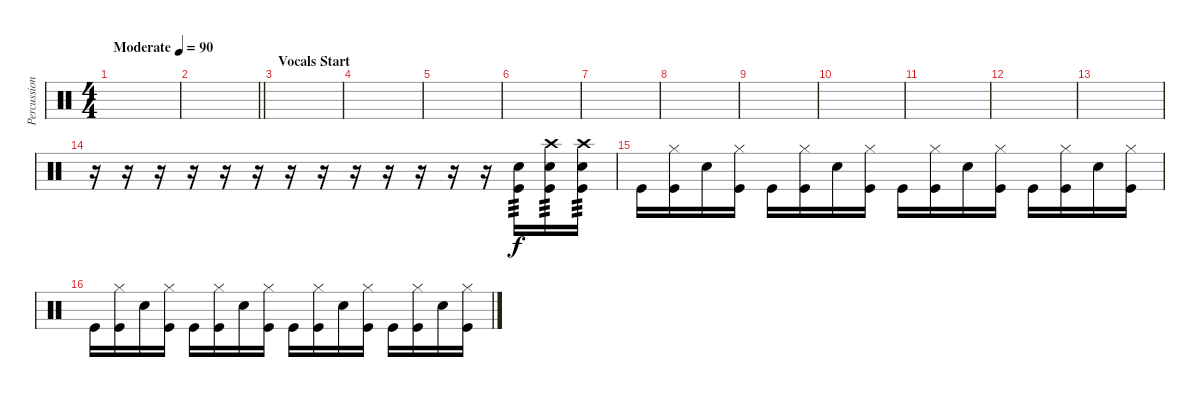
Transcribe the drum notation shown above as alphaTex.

\track ("Percussion" "Percussion") {instrument percussion}
\staff {score}
\articulation defaults
\ts (4 4)
\tempo (90 "Moderate")
\clef neutral
\ks c
|
\barLineRight lightlight
|
\section ("" "Vocals Start")
|
|
|
|
|
|
|
|
|
|
|
r.16 r.16 r.16 r.16 r.16 r.16 r.16 r.16 r.16 r.16 r.16 r.16 r.16 ("Snare (hit) 2" "Kick (hit)").16{tp 3} ("Crash high (hit)" "Snare (hit) 2" "Kick (hit)").16{tp 3} ("Crash high (hit)" "Snare (hit) 2" "Kick (hit)").16{tp 3} |
"Kick (hit)".16 ("Hi-Hat (closed)" "Kick (hit)").16 "Snare (hit) 2".16 ("Hi-Hat (closed)" "Kick (hit)").16 "Kick (hit)".16 ("Hi-Hat (closed)" "Kick (hit)").16 "Snare (hit) 2".16 ("Hi-Hat (closed)" "Kick (hit)").16 "Kick (hit)".16 ("Hi-Hat (closed)" "Kick (hit)").16 "Snare (hit) 2".16 ("Hi-Hat (closed)" "Kick (hit)").16 "Kick (hit)".16 ("Hi-Hat (closed)" "Kick (hit)").16 "Snare (hit) 2".16 ("Hi-Hat (closed)" "Kick (hit)").16 |
"Kick (hit)".16 ("Hi-Hat (closed)" "Kick (hit)").16 "Snare (hit) 2".16 ("Hi-Hat (closed)" "Kick (hit)").16 "Kick (hit)".16 ("Hi-Hat (closed)" "Kick (hit)").16 "Snare (hit) 2".16 ("Hi-Hat (closed)" "Kick (hit)").16 "Kick (hit)".16 ("Hi-Hat (closed)" "Kick (hit)").16 "Snare (hit) 2".16 ("Hi-Hat (closed)" "Kick (hit)").16 "Kick (hit)".16 ("Hi-Hat (closed)" "Kick (hit)").16 "Snare (hit) 2".16 ("Hi-Hat (closed)" "Kick (hit)").16
